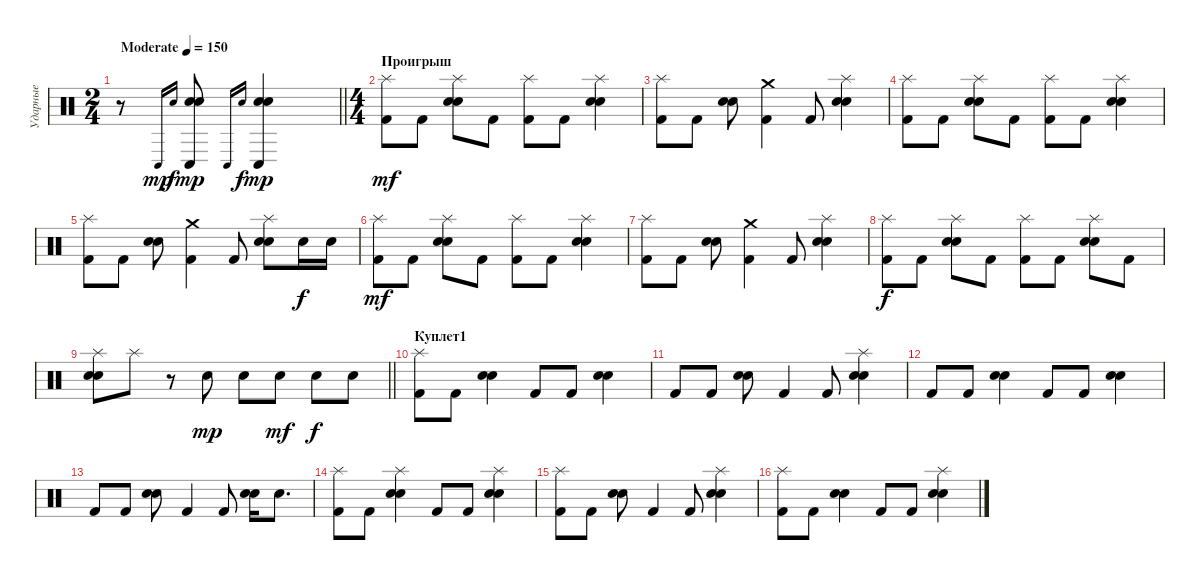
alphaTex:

\track ("Ударные" "Ударные") {instrument percussion}
\staff {score}
\articulation defaults
\ts (2 4)
\tempo (150 "Moderate")
\clef neutral
\barLineRight lightlight
\ks c
r.8{dy mp} "Conga low (hit)".16{gr onbeat} "Electric Snare (hit)".16{gr onbeat dy f} ("Conga low (hit)" "Electric Snare (hit)" "Snare (hit) 2").8{dy mp} "Conga low (hit)".16{gr onbeat} "Electric Snare (hit)".16{gr onbeat dy f} ("Conga low (hit)" "Electric Snare (hit)" "Snare (hit) 2").4{dy mp} |
\ts (4 4)
\section ("" "Проигрыш")
("Splash (hit)" "Kick (hit) 2").8{dy mf} "Kick (hit) 2".8 ("Splash (hit)" "Electric Snare (hit)" "Snare (hit) 2").8 "Kick (hit) 2".8 ("Splash (hit)" "Kick (hit) 2").8 "Kick (hit) 2".8 ("Splash (hit)" "Electric Snare (hit)" "Snare (hit) 2").4 |
("Splash (hit)" "Kick (hit) 2").8 "Kick (hit) 2".8 ("Electric Snare (hit)" "Snare (hit) 2").8 ("Crash medium (hit)" "Kick (hit) 2").4 "Kick (hit) 2".8 ("Splash (hit)" "Electric Snare (hit)" "Snare (hit) 2").4 |
("Splash (hit)" "Kick (hit) 2").8 "Kick (hit) 2".8 ("Splash (hit)" "Electric Snare (hit)" "Snare (hit) 2").8 "Kick (hit) 2".8 ("Splash (hit)" "Kick (hit) 2").8 "Kick (hit) 2".8 ("Splash (hit)" "Electric Snare (hit)" "Snare (hit) 2").4 |
("Splash (hit)" "Kick (hit) 2").8 "Kick (hit) 2".8 ("Electric Snare (hit)" "Snare (hit) 2").8 ("Crash medium (hit)" "Kick (hit) 2").4 "Kick (hit) 2".8 ("Splash (hit)" "Electric Snare (hit)" "Snare (hit) 2").8 "Electric Snare (hit)".16{dy f} "Electric Snare (hit)".16 |
("Splash (hit)" "Kick (hit) 2").8{dy mf} "Kick (hit) 2".8 ("Splash (hit)" "Electric Snare (hit)" "Snare (hit) 2").8 "Kick (hit) 2".8 ("Splash (hit)" "Kick (hit) 2").8 "Kick (hit) 2".8 ("Splash (hit)" "Electric Snare (hit)" "Snare (hit) 2").4 |
("Splash (hit)" "Kick (hit) 2").8 "Kick (hit) 2".8 ("Electric Snare (hit)" "Snare (hit) 2").8 ("Crash medium (hit)" "Kick (hit) 2").4 "Kick (hit) 2".8 ("Splash (hit)" "Electric Snare (hit)" "Snare (hit) 2").4 |
("Splash (hit)" "Kick (hit) 2").8{dy f} "Kick (hit) 2".8 ("Splash (hit)" "Electric Snare (hit)" "Snare (hit) 2").8 "Kick (hit) 2".8 ("Splash (hit)" "Kick (hit) 2").8 "Kick (hit) 2".8 ("Splash (hit)" "Electric Snare (hit)" "Snare (hit) 2").8 "Kick (hit) 2".8 |
\barLineRight lightlight
("Splash (hit)" "Electric Snare (hit)" "Snare (hit) 2").8 "Splash (hit)".8 r.8 "Electric Snare (hit)".8{dy mp} "Electric Snare (hit)".8 "Electric Snare (hit)".8{dy mf} "Electric Snare (hit)".8{dy f} "Electric Snare (hit)".8 |
\section ("" "Куплет1")
("Splash (hit)" "Kick (hit) 2").8 "Kick (hit) 2".8 ("Electric Snare (hit)" "Snare (hit) 2").4 "Kick (hit) 2".8 "Kick (hit) 2".8 ("Electric Snare (hit)" "Snare (hit) 2").4 |
"Kick (hit) 2".8 "Kick (hit) 2".8 ("Electric Snare (hit)" "Snare (hit) 2").8 "Kick (hit) 2".4 "Kick (hit) 2".8 ("Splash (hit)" "Electric Snare (hit)" "Snare (hit) 2").4 |
"Kick (hit) 2".8 "Kick (hit) 2".8 ("Electric Snare (hit)" "Snare (hit) 2").4 "Kick (hit) 2".8 "Kick (hit) 2".8 ("Electric Snare (hit)" "Snare (hit) 2").4 |
"Kick (hit) 2".8 "Kick (hit) 2".8 ("Electric Snare (hit)" "Snare (hit) 2").8 "Kick (hit) 2".4 "Kick (hit) 2".8 ("Electric Snare (hit)" "Snare (hit) 2").16 "Electric Snare (hit)".8{d} |
("Splash (hit)" "Kick (hit) 2").8 "Kick (hit) 2".8 ("Splash (hit)" "Electric Snare (hit)" "Snare (hit) 2").4 "Kick (hit) 2".8 "Kick (hit) 2".8 ("Splash (hit)" "Electric Snare (hit)" "Snare (hit) 2").4 |
("Splash (hit)" "Kick (hit) 2").8 "Kick (hit) 2".8 ("Electric Snare (hit)" "Snare (hit) 2").8 "Kick (hit) 2".4 "Kick (hit) 2".8 ("Splash (hit)" "Electric Snare (hit)" "Snare (hit) 2").4 |
("Splash (hit)" "Kick (hit) 2").8 "Kick (hit) 2".8 ("Electric Snare (hit)" "Snare (hit) 2").4 "Kick (hit) 2".8 "Kick (hit) 2".8 ("Splash (hit)" "Electric Snare (hit)" "Snare (hit) 2").4
